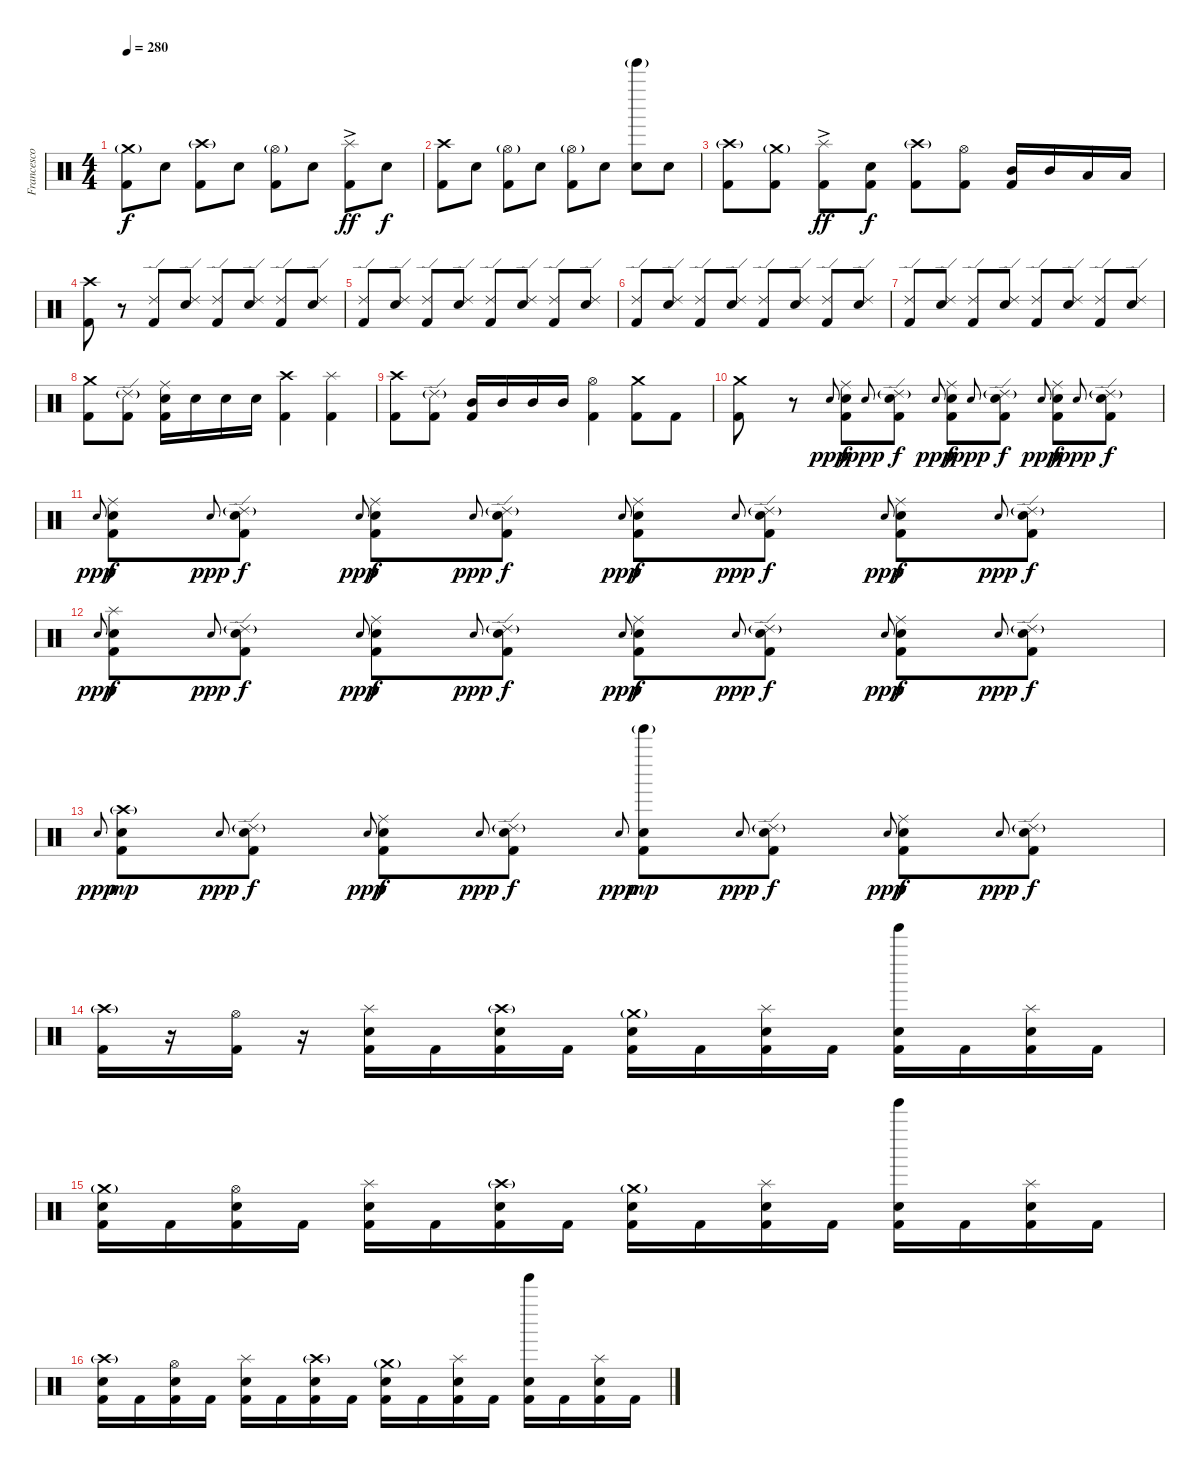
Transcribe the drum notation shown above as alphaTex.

\track ("Francesco Ferrini" "Francesco ") {instrument percussion}
\staff {score}
\articulation defaults
\ts (4 4)
\tempo 280
\clef neutral
\ks c
("Crash medium (hit)"{g} "Kick (hit) 2").8{dy f} "Electric Snare (hit)".8 ("Crash high (hit)"{g} "Kick (hit) 2").8 "Electric Snare (hit)".8 ("Hi-Hat (open)"{g} "Kick (hit) 2").8 "Electric Snare (hit)".8 ("Splash (hit)"{ac} "Kick (hit) 2").8{dy ff} "Electric Snare (hit)".8{dy f} |
("Crash high (hit)" "Kick (hit) 2").8 "Electric Snare (hit)".8 ("Hi-Hat (open)"{g} "Kick (hit) 2").8 "Electric Snare (hit)".8 ("Hi-Hat (open)"{g} "Kick (hit) 2").8 "Electric Snare (hit)".8 ("Tinkle Bell (hit)"{g} "Electric Snare (hit)").8 "Electric Snare (hit)".8 |
("Crash high (hit)"{g} "Kick (hit) 2").8 ("Crash medium (hit)"{g} "Kick (hit) 2").8 ("Splash (hit)"{ac} "Kick (hit) 2").8{dy ff} ("Electric Snare (hit)" "Kick (hit) 2").8{dy f} ("Crash high (hit)"{g} "Kick (hit) 2").8 ("Hi-Hat (open)" "Kick (hit) 2").8 ("Mid Tom (hit)" "Kick (hit) 2").16 "Mid Tom (hit)".16 "Low Tom (hit)".16 "Low Tom (hit)".16 |
("Crash high (hit)" "Kick (hit) 2").8 r.8 ("Ride (edge) 2" "Kick (hit) 2").8 ("Ride (edge) 2" "Electric Snare (hit)").8 ("Ride (edge) 2" "Kick (hit) 2").8 ("Ride (edge) 2" "Electric Snare (hit)").8 ("Ride (edge) 2" "Kick (hit) 2").8 ("Ride (edge) 2" "Electric Snare (hit)").8 |
("Ride (edge) 2" "Kick (hit) 2").8 ("Ride (edge) 2" "Electric Snare (hit)").8 ("Ride (edge) 2" "Kick (hit) 2").8 ("Ride (edge) 2" "Electric Snare (hit)").8 ("Ride (edge) 2" "Kick (hit) 2").8 ("Ride (edge) 2" "Electric Snare (hit)").8 ("Ride (edge) 2" "Kick (hit) 2").8 ("Ride (edge) 2" "Electric Snare (hit)").8 |
("Ride (edge) 2" "Kick (hit) 2").8 ("Ride (edge) 2" "Electric Snare (hit)").8 ("Ride (edge) 2" "Kick (hit) 2").8 ("Ride (edge) 2" "Electric Snare (hit)").8 ("Ride (edge) 2" "Kick (hit) 2").8 ("Ride (edge) 2" "Electric Snare (hit)").8 ("Ride (edge) 2" "Kick (hit) 2").8 ("Ride (edge) 2" "Electric Snare (hit)").8 |
("Ride (edge) 2" "Kick (hit) 2").8 ("Ride (edge) 2" "Electric Snare (hit)").8 ("Ride (edge) 2" "Kick (hit) 2").8 ("Ride (edge) 2" "Electric Snare (hit)").8 ("Ride (edge) 2" "Kick (hit) 2").8 ("Ride (edge) 2" "Electric Snare (hit)").8 ("Ride (edge) 2" "Kick (hit) 2").8 ("Ride (edge) 2" "Electric Snare (hit)").8 |
("Crash medium (hit)" "Kick (hit) 2").8 ("Ride (edge) 2"{g} "Kick (hit) 2").8 ("Ride (middle)" "Electric Snare (hit)" "Kick (hit) 2").16 "Electric Snare (hit)".16 "Electric Snare (hit)".16 "Electric Snare (hit)".16 ("Crash high (hit)" "Kick (hit) 2").4 ("Splash (hit)" "Kick (hit) 2").4 |
("Crash high (hit)" "Kick (hit) 2").8 ("Ride (edge) 2"{g} "Kick (hit) 2").8 ("Mid Tom (hit)" "Kick (hit) 2").16 "Mid Tom (hit)".16 "Mid Tom (hit)".16 "Mid Tom (hit)".16 ("Hi-Hat (open)" "Kick (hit) 2").4 ("Crash medium (hit)" "Kick (hit) 2").8 "Kick (hit) 2".8 |
("Crash medium (hit)" "Kick (hit) 2").8 r.8 "Electric Snare (hit)"{h}.8{gr onbeat dy ppp} ("Ride (middle)" "Electric Snare (hit)" "Kick (hit) 2").8{dy f} "Electric Snare (hit)"{h}.8{gr onbeat dy ppp} ("Ride (edge) 2"{g} "Electric Snare (hit)" "Kick (hit) 2").8{dy f} "Electric Snare (hit)"{h}.8{gr onbeat dy ppp} ("Ride (middle)" "Electric Snare (hit)" "Kick (hit) 2").8{dy f} "Electric Snare (hit)"{h}.8{gr onbeat dy ppp} ("Ride (edge) 2"{g} "Electric Snare (hit)" "Kick (hit) 2").8{dy f} "Electric Snare (hit)"{h}.8{gr onbeat dy ppp} ("Ride (middle)" "Electric Snare (hit)" "Kick (hit) 2").8{dy f} "Electric Snare (hit)"{h}.8{gr onbeat dy ppp} ("Ride (edge) 2"{g} "Electric Snare (hit)" "Kick (hit) 2").8{dy f} |
"Electric Snare (hit)"{h}.8{gr onbeat dy ppp} ("Ride (middle)" "Electric Snare (hit)" "Kick (hit) 2").8{dy f} "Electric Snare (hit)"{h}.8{gr onbeat dy ppp} ("Ride (edge) 2"{g} "Electric Snare (hit)" "Kick (hit) 2").8{dy f} "Electric Snare (hit)"{h}.8{gr onbeat dy ppp} ("Ride (middle)" "Electric Snare (hit)" "Kick (hit) 2").8{dy f} "Electric Snare (hit)"{h}.8{gr onbeat dy ppp} ("Ride (edge) 2"{g} "Electric Snare (hit)" "Kick (hit) 2").8{dy f} "Electric Snare (hit)"{h}.8{gr onbeat dy ppp} ("Ride (middle)" "Electric Snare (hit)" "Kick (hit) 2").8{dy f} "Electric Snare (hit)"{h}.8{gr onbeat dy ppp} ("Ride (edge) 2"{g} "Electric Snare (hit)" "Kick (hit) 2").8{dy f} "Electric Snare (hit)"{h}.8{gr onbeat dy ppp} ("Ride (middle)" "Electric Snare (hit)" "Kick (hit) 2").8{dy f} "Electric Snare (hit)"{h}.8{gr onbeat dy ppp} ("Ride (edge) 2"{g} "Electric Snare (hit)" "Kick (hit) 2").8{dy f} |
"Electric Snare (hit)"{h}.8{gr onbeat dy ppp} ("Splash (hit)" "Electric Snare (hit)" "Kick (hit) 2").8{dy f} "Electric Snare (hit)"{h}.8{gr onbeat dy ppp} ("Ride (edge) 2"{g} "Electric Snare (hit)" "Kick (hit) 2").8{dy f} "Electric Snare (hit)"{h}.8{gr onbeat dy ppp} ("Ride (middle)" "Electric Snare (hit)" "Kick (hit) 2").8{dy f} "Electric Snare (hit)"{h}.8{gr onbeat dy ppp} ("Ride (edge) 2"{g} "Electric Snare (hit)" "Kick (hit) 2").8{dy f} "Electric Snare (hit)"{h}.8{gr onbeat dy ppp} ("Ride (middle)" "Electric Snare (hit)" "Kick (hit) 2").8{dy f} "Electric Snare (hit)"{h}.8{gr onbeat dy ppp} ("Ride (edge) 2"{g} "Electric Snare (hit)" "Kick (hit) 2").8{dy f} "Electric Snare (hit)"{h}.8{gr onbeat dy ppp} ("Ride (middle)" "Electric Snare (hit)" "Kick (hit) 2").8{dy f} "Electric Snare (hit)"{h}.8{gr onbeat dy ppp} ("Ride (edge) 2"{g} "Electric Snare (hit)" "Kick (hit) 2").8{dy f} |
"Electric Snare (hit)"{h}.8{gr onbeat dy ppp} ("Crash high (hit)"{g} "Electric Snare (hit)" "Kick (hit) 2").8{dy mp} "Electric Snare (hit)"{h}.8{gr onbeat dy ppp} ("Ride (edge) 2"{g} "Electric Snare (hit)" "Kick (hit) 2").8{dy f} "Electric Snare (hit)"{h}.8{gr onbeat dy ppp} ("Ride (middle)" "Electric Snare (hit)" "Kick (hit) 2").8{dy f} "Electric Snare (hit)"{h}.8{gr onbeat dy ppp} ("Ride (edge) 2"{g} "Electric Snare (hit)" "Kick (hit) 2").8{dy f} "Electric Snare (hit)"{h}.8{gr onbeat dy ppp} ("Tinkle Bell (hit)"{g} "Electric Snare (hit)" "Kick (hit) 2").8{dy mp} "Electric Snare (hit)"{h}.8{gr onbeat dy ppp} ("Ride (edge) 2"{g} "Electric Snare (hit)" "Kick (hit) 2").8{dy f} "Electric Snare (hit)"{h}.8{gr onbeat dy ppp} ("Ride (middle)" "Electric Snare (hit)" "Kick (hit) 2").8{dy f} "Electric Snare (hit)"{h}.8{gr onbeat dy ppp} ("Ride (edge) 2"{g} "Electric Snare (hit)" "Kick (hit) 2").8{dy f} |
("Crash high (hit)"{g} "Kick (hit) 2").16 r.16 ("Hi-Hat (open)" "Kick (hit) 2").16 r.16 ("Splash (hit)" "Electric Snare (hit)" "Kick (hit) 2").16 "Kick (hit) 2".16 ("Crash high (hit)"{g} "Electric Snare (hit)" "Kick (hit) 2").16 "Kick (hit) 2".16 ("Crash medium (hit)"{g} "Electric Snare (hit)" "Kick (hit) 2").16 "Kick (hit) 2".16 ("Splash (hit)" "Electric Snare (hit)" "Kick (hit) 2").16 "Kick (hit) 2".16 ("Tinkle Bell (hit)" "Electric Snare (hit)" "Kick (hit) 2").16 "Kick (hit) 2".16 ("Splash (hit)" "Electric Snare (hit)" "Kick (hit) 2").16 "Kick (hit) 2".16 |
("Crash medium (hit)"{g} "Electric Snare (hit)" "Kick (hit) 2").16 "Kick (hit) 2".16 ("Hi-Hat (open)" "Electric Snare (hit)" "Kick (hit) 2").16 "Kick (hit) 2".16 ("Splash (hit)" "Electric Snare (hit)" "Kick (hit) 2").16 "Kick (hit) 2".16 ("Crash high (hit)"{g} "Electric Snare (hit)" "Kick (hit) 2").16 "Kick (hit) 2".16 ("Crash medium (hit)"{g} "Electric Snare (hit)" "Kick (hit) 2").16 "Kick (hit) 2".16 ("Splash (hit)" "Electric Snare (hit)" "Kick (hit) 2").16 "Kick (hit) 2".16 ("Tinkle Bell (hit)" "Electric Snare (hit)" "Kick (hit) 2").16 "Kick (hit) 2".16 ("Splash (hit)" "Electric Snare (hit)" "Kick (hit) 2").16 "Kick (hit) 2".16 |
("Crash high (hit)"{g} "Electric Snare (hit)" "Kick (hit) 2").16 "Kick (hit) 2".16 ("Hi-Hat (open)" "Electric Snare (hit)" "Kick (hit) 2").16 "Kick (hit) 2".16 ("Splash (hit)" "Electric Snare (hit)" "Kick (hit) 2").16 "Kick (hit) 2".16 ("Crash high (hit)"{g} "Electric Snare (hit)" "Kick (hit) 2").16 "Kick (hit) 2".16 ("Crash medium (hit)"{g} "Electric Snare (hit)" "Kick (hit) 2").16 "Kick (hit) 2".16 ("Splash (hit)" "Electric Snare (hit)" "Kick (hit) 2").16 "Kick (hit) 2".16 ("Tinkle Bell (hit)" "Electric Snare (hit)" "Kick (hit) 2").16 "Kick (hit) 2".16 ("Splash (hit)" "Electric Snare (hit)" "Kick (hit) 2").16 "Kick (hit) 2".16
